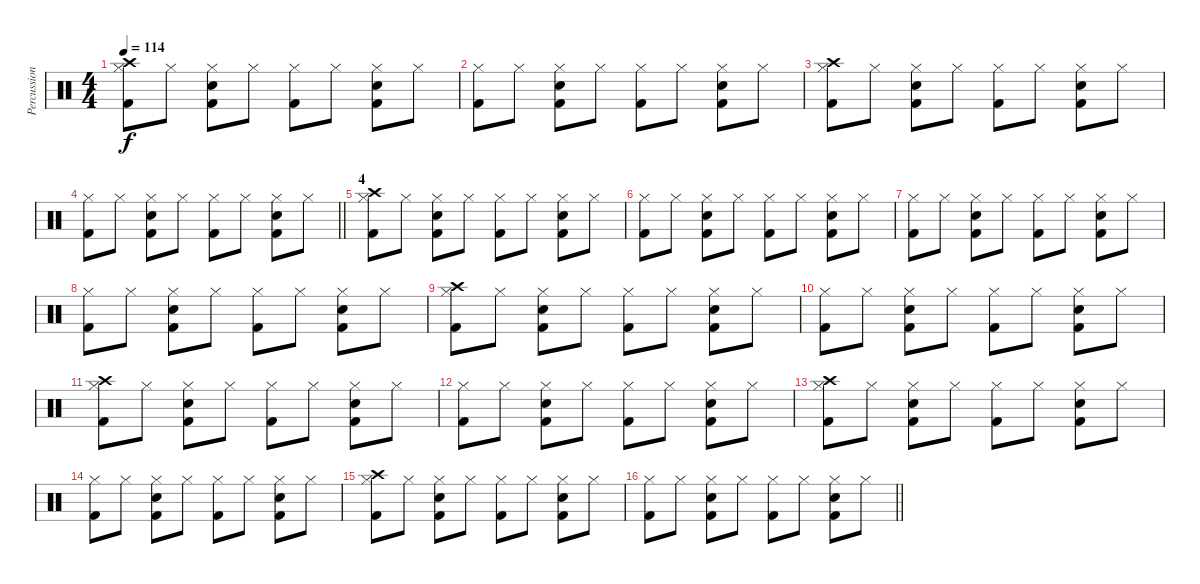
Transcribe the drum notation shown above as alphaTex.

\track ("Percussions" "Percussion") {instrument percussion}
\staff {score}
\articulation defaults
\ts (4 4)
\tempo 114
\clef neutral
\ks c
("Kick (hit) 2" "Hi-Hat (closed)" "Crash high (hit)").8{dy f} "Hi-Hat (closed)".8 ("Kick (hit) 2" "Hi-Hat (closed)" "Snare (hit) 2").8 "Hi-Hat (closed)".8 ("Kick (hit) 2" "Hi-Hat (closed)").8 "Hi-Hat (closed)".8 ("Kick (hit) 2" "Hi-Hat (closed)" "Snare (hit) 2").8 "Hi-Hat (closed)".8 |
("Kick (hit) 2" "Hi-Hat (closed)").8 "Hi-Hat (closed)".8 ("Kick (hit) 2" "Hi-Hat (closed)" "Snare (hit) 2").8 "Hi-Hat (closed)".8 ("Kick (hit) 2" "Hi-Hat (closed)").8 "Hi-Hat (closed)".8 ("Kick (hit) 2" "Hi-Hat (closed)" "Snare (hit) 2").8 "Hi-Hat (closed)".8 |
("Kick (hit) 2" "Hi-Hat (closed)" "Crash high (hit)").8 "Hi-Hat (closed)".8 ("Kick (hit) 2" "Hi-Hat (closed)" "Snare (hit) 2").8 "Hi-Hat (closed)".8 ("Kick (hit) 2" "Hi-Hat (closed)").8 "Hi-Hat (closed)".8 ("Kick (hit) 2" "Hi-Hat (closed)" "Snare (hit) 2").8 "Hi-Hat (closed)".8 |
\barLineRight lightlight
("Kick (hit) 2" "Hi-Hat (closed)").8 "Hi-Hat (closed)".8 ("Kick (hit) 2" "Hi-Hat (closed)" "Snare (hit) 2").8 "Hi-Hat (closed)".8 ("Kick (hit) 2" "Hi-Hat (closed)").8 "Hi-Hat (closed)".8 ("Kick (hit) 2" "Hi-Hat (closed)" "Snare (hit) 2").8 "Hi-Hat (closed)".8 |
\section ("" "4")
("Kick (hit) 2" "Hi-Hat (closed)" "Crash high (hit)").8 "Hi-Hat (closed)".8 ("Kick (hit) 2" "Hi-Hat (closed)" "Snare (hit) 2").8 "Hi-Hat (closed)".8 ("Kick (hit) 2" "Hi-Hat (closed)").8 "Hi-Hat (closed)".8 ("Kick (hit) 2" "Hi-Hat (closed)" "Snare (hit) 2").8 "Hi-Hat (closed)".8 |
("Kick (hit) 2" "Hi-Hat (closed)").8 "Hi-Hat (closed)".8 ("Kick (hit) 2" "Hi-Hat (closed)" "Snare (hit) 2").8 "Hi-Hat (closed)".8 ("Kick (hit) 2" "Hi-Hat (closed)").8 "Hi-Hat (closed)".8 ("Kick (hit) 2" "Hi-Hat (closed)" "Snare (hit) 2").8 "Hi-Hat (closed)".8 |
("Kick (hit) 2" "Hi-Hat (closed)").8 "Hi-Hat (closed)".8 ("Kick (hit) 2" "Hi-Hat (closed)" "Snare (hit) 2").8 "Hi-Hat (closed)".8 ("Kick (hit) 2" "Hi-Hat (closed)").8 "Hi-Hat (closed)".8 ("Kick (hit) 2" "Hi-Hat (closed)" "Snare (hit) 2").8 "Hi-Hat (closed)".8 |
("Kick (hit) 2" "Hi-Hat (closed)").8 "Hi-Hat (closed)".8 ("Kick (hit) 2" "Hi-Hat (closed)" "Snare (hit) 2").8 "Hi-Hat (closed)".8 ("Kick (hit) 2" "Hi-Hat (closed)").8 "Hi-Hat (closed)".8 ("Kick (hit) 2" "Hi-Hat (closed)" "Snare (hit) 2").8 "Hi-Hat (closed)".8 |
("Kick (hit) 2" "Hi-Hat (closed)" "Crash high (hit)").8 "Hi-Hat (closed)".8 ("Kick (hit) 2" "Hi-Hat (closed)" "Snare (hit) 2").8 "Hi-Hat (closed)".8 ("Kick (hit) 2" "Hi-Hat (closed)").8 "Hi-Hat (closed)".8 ("Kick (hit) 2" "Hi-Hat (closed)" "Snare (hit) 2").8 "Hi-Hat (closed)".8 |
("Kick (hit) 2" "Hi-Hat (closed)").8 "Hi-Hat (closed)".8 ("Kick (hit) 2" "Hi-Hat (closed)" "Snare (hit) 2").8 "Hi-Hat (closed)".8 ("Kick (hit) 2" "Hi-Hat (closed)").8 "Hi-Hat (closed)".8 ("Kick (hit) 2" "Hi-Hat (closed)" "Snare (hit) 2").8 "Hi-Hat (closed)".8 |
("Kick (hit) 2" "Hi-Hat (closed)" "Crash high (hit)").8 "Hi-Hat (closed)".8 ("Kick (hit) 2" "Hi-Hat (closed)" "Snare (hit) 2").8 "Hi-Hat (closed)".8 ("Kick (hit) 2" "Hi-Hat (closed)").8 "Hi-Hat (closed)".8 ("Kick (hit) 2" "Hi-Hat (closed)" "Snare (hit) 2").8 "Hi-Hat (closed)".8 |
("Kick (hit) 2" "Hi-Hat (closed)").8 "Hi-Hat (closed)".8 ("Kick (hit) 2" "Hi-Hat (closed)" "Snare (hit) 2").8 "Hi-Hat (closed)".8 ("Kick (hit) 2" "Hi-Hat (closed)").8 "Hi-Hat (closed)".8 ("Kick (hit) 2" "Hi-Hat (closed)" "Snare (hit) 2").8 "Hi-Hat (closed)".8 |
("Kick (hit) 2" "Hi-Hat (closed)" "Crash high (hit)").8 "Hi-Hat (closed)".8 ("Kick (hit) 2" "Hi-Hat (closed)" "Snare (hit) 2").8 "Hi-Hat (closed)".8 ("Kick (hit) 2" "Hi-Hat (closed)").8 "Hi-Hat (closed)".8 ("Kick (hit) 2" "Hi-Hat (closed)" "Snare (hit) 2").8 "Hi-Hat (closed)".8 |
("Kick (hit) 2" "Hi-Hat (closed)").8 "Hi-Hat (closed)".8 ("Kick (hit) 2" "Hi-Hat (closed)" "Snare (hit) 2").8 "Hi-Hat (closed)".8 ("Kick (hit) 2" "Hi-Hat (closed)").8 "Hi-Hat (closed)".8 ("Kick (hit) 2" "Hi-Hat (closed)" "Snare (hit) 2").8 "Hi-Hat (closed)".8 |
("Kick (hit) 2" "Hi-Hat (closed)" "Crash high (hit)").8 "Hi-Hat (closed)".8 ("Kick (hit) 2" "Hi-Hat (closed)" "Snare (hit) 2").8 "Hi-Hat (closed)".8 ("Kick (hit) 2" "Hi-Hat (closed)").8 "Hi-Hat (closed)".8 ("Kick (hit) 2" "Hi-Hat (closed)" "Snare (hit) 2").8 "Hi-Hat (closed)".8 |
\barLineRight lightlight
("Kick (hit) 2" "Hi-Hat (closed)").8 "Hi-Hat (closed)".8 ("Kick (hit) 2" "Hi-Hat (closed)" "Snare (hit) 2").8 "Hi-Hat (closed)".8 ("Kick (hit) 2" "Hi-Hat (closed)").8 "Hi-Hat (closed)".8 ("Kick (hit) 2" "Hi-Hat (closed)" "Snare (hit) 2").8 "Hi-Hat (closed)".8
